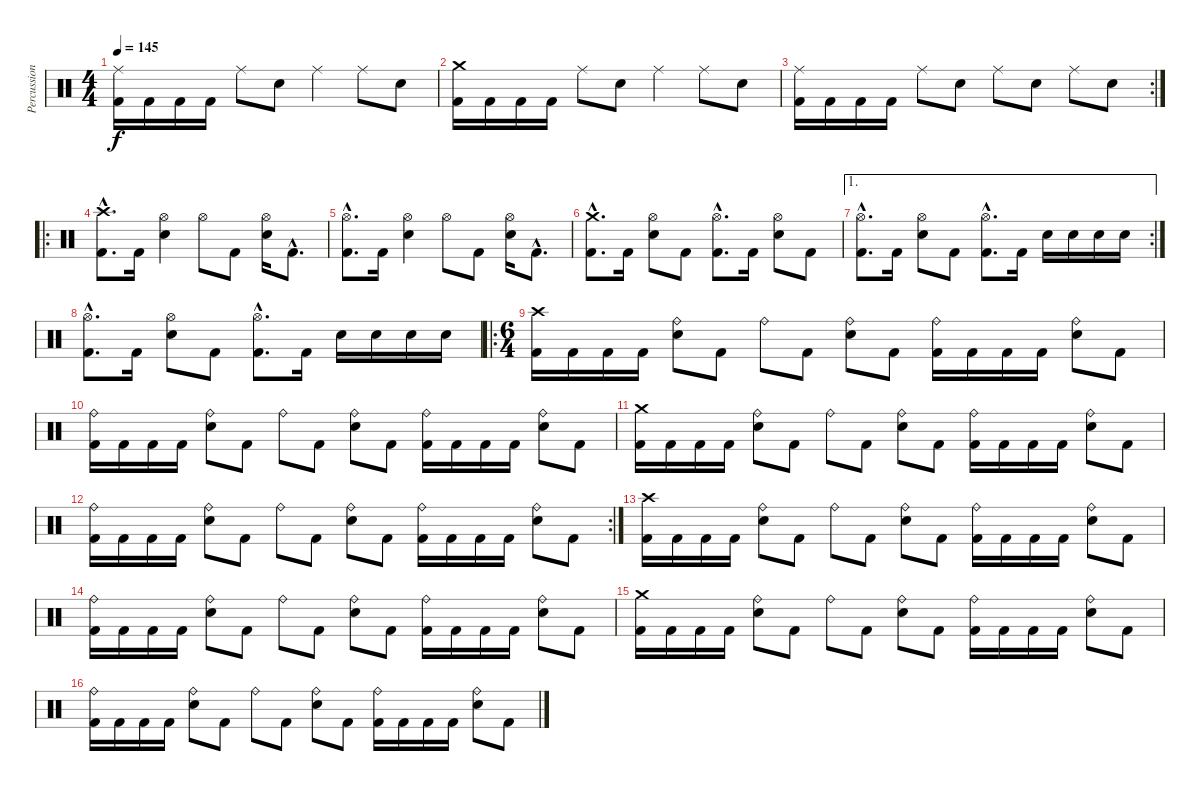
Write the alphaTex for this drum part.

\track ("Percussions" "Percussion") {instrument percussion}
\staff {score}
\articulation defaults
\ts (4 4)
\tempo 145
\clef neutral
\ks c
("Ride (middle)" "Kick (hit) 2").16{dy f} "Kick (hit) 2".16 "Kick (hit) 2".16 "Kick (hit) 2".16 "Ride (middle)".8 "Electric Snare (hit)".8 "Ride (middle)".4 "Ride (middle)".8 "Electric Snare (hit)".8 |
("Crash medium (hit)" "Kick (hit) 2").16 "Kick (hit) 2".16 "Kick (hit) 2".16 "Kick (hit) 2".16 "Ride (middle)".8 "Electric Snare (hit)".8 "Ride (middle)".4 "Ride (middle)".8 "Electric Snare (hit)".8 |
\rc 2
("Ride (middle)" "Kick (hit) 2").16 "Kick (hit) 2".16 "Kick (hit) 2".16 "Kick (hit) 2".16 "Ride (middle)".8 "Electric Snare (hit)".8 "Ride (middle)".8 "Electric Snare (hit)".8 "Ride (middle)".8 "Electric Snare (hit)".8 |
\ro
("Crash high (hit)"{hac} "Kick (hit) 2"{hac}).8{d} "Kick (hit) 2".16 ("Hi-Hat (open)" "Electric Snare (hit)").4 "Hi-Hat (open)".8 "Kick (hit) 2".8 ("Hi-Hat (open)" "Electric Snare (hit)").16 "Kick (hit) 2"{hac}.8{d} |
("Hi-Hat (open)"{hac} "Kick (hit) 2"{hac}).8{d} "Kick (hit) 2".16 ("Hi-Hat (open)" "Electric Snare (hit)").4 "Hi-Hat (open)".8 "Kick (hit) 2".8 ("Hi-Hat (open)" "Electric Snare (hit)").16 "Kick (hit) 2"{hac}.8{d} |
("Crash medium (hit)"{hac} "Kick (hit) 2"{hac}).8{d} "Kick (hit) 2".16 ("Hi-Hat (open)" "Electric Snare (hit)").8 "Kick (hit) 2".8 ("Hi-Hat (open)"{hac} "Kick (hit) 2"{hac}).8{d} "Kick (hit) 2".16 ("Hi-Hat (open)" "Electric Snare (hit)").8 "Kick (hit) 2".8 |
\ae 1
\rc 2
("Hi-Hat (open)"{hac} "Kick (hit) 2"{hac}).8{d} "Kick (hit) 2".16 ("Hi-Hat (open)" "Electric Snare (hit)").8 "Kick (hit) 2".8 ("Hi-Hat (open)"{hac} "Kick (hit) 2"{hac}).8{d} "Kick (hit) 2".16 "Electric Snare (hit)".16 "Electric Snare (hit)".16 "Electric Snare (hit)".16 "Electric Snare (hit)".16 |
("Hi-Hat (open)"{hac} "Kick (hit) 2"{hac}).8{d} "Kick (hit) 2".16 ("Hi-Hat (open)" "Electric Snare (hit)").8 "Kick (hit) 2".8 ("Hi-Hat (open)"{hac} "Kick (hit) 2"{hac}).8{d} "Kick (hit) 2".16 "Electric Snare (hit)".16 "Electric Snare (hit)".16 "Electric Snare (hit)".16 "Electric Snare (hit)".16 |
\ro
\ts (6 4)
("Crash high (hit)" "Kick (hit) 2").16 "Kick (hit) 2".16 "Kick (hit) 2".16 "Kick (hit) 2".16 ("Ride (bell)" "Electric Snare (hit)").8 "Kick (hit) 2".8 "Ride (bell)".8 "Kick (hit) 2".8 ("Ride (bell)" "Electric Snare (hit)").8 "Kick (hit) 2".8 ("Ride (bell)" "Kick (hit) 2").16 "Kick (hit) 2".16 "Kick (hit) 2".16 "Kick (hit) 2".16 ("Ride (bell)" "Electric Snare (hit)").8 "Kick (hit) 2".8 |
("Ride (bell)" "Kick (hit) 2").16 "Kick (hit) 2".16 "Kick (hit) 2".16 "Kick (hit) 2".16 ("Ride (bell)" "Electric Snare (hit)").8 "Kick (hit) 2".8 "Ride (bell)".8 "Kick (hit) 2".8 ("Ride (bell)" "Electric Snare (hit)").8 "Kick (hit) 2".8 ("Ride (bell)" "Kick (hit) 2").16 "Kick (hit) 2".16 "Kick (hit) 2".16 "Kick (hit) 2".16 ("Ride (bell)" "Electric Snare (hit)").8 "Kick (hit) 2".8 |
("Crash medium (hit)" "Kick (hit) 2").16 "Kick (hit) 2".16 "Kick (hit) 2".16 "Kick (hit) 2".16 ("Ride (bell)" "Electric Snare (hit)").8 "Kick (hit) 2".8 "Ride (bell)".8 "Kick (hit) 2".8 ("Ride (bell)" "Electric Snare (hit)").8 "Kick (hit) 2".8 ("Ride (bell)" "Kick (hit) 2").16 "Kick (hit) 2".16 "Kick (hit) 2".16 "Kick (hit) 2".16 ("Ride (bell)" "Electric Snare (hit)").8 "Kick (hit) 2".8 |
\rc 2
("Ride (bell)" "Kick (hit) 2").16 "Kick (hit) 2".16 "Kick (hit) 2".16 "Kick (hit) 2".16 ("Ride (bell)" "Electric Snare (hit)").8 "Kick (hit) 2".8 "Ride (bell)".8 "Kick (hit) 2".8 ("Ride (bell)" "Electric Snare (hit)").8 "Kick (hit) 2".8 ("Ride (bell)" "Kick (hit) 2").16 "Kick (hit) 2".16 "Kick (hit) 2".16 "Kick (hit) 2".16 ("Ride (bell)" "Electric Snare (hit)").8 "Kick (hit) 2".8 |
("Crash high (hit)" "Kick (hit) 2").16 "Kick (hit) 2".16 "Kick (hit) 2".16 "Kick (hit) 2".16 ("Ride (bell)" "Electric Snare (hit)").8 "Kick (hit) 2".8 "Ride (bell)".8 "Kick (hit) 2".8 ("Ride (bell)" "Electric Snare (hit)").8 "Kick (hit) 2".8 ("Ride (bell)" "Kick (hit) 2").16 "Kick (hit) 2".16 "Kick (hit) 2".16 "Kick (hit) 2".16 ("Ride (bell)" "Electric Snare (hit)").8 "Kick (hit) 2".8 |
("Ride (bell)" "Kick (hit) 2").16 "Kick (hit) 2".16 "Kick (hit) 2".16 "Kick (hit) 2".16 ("Ride (bell)" "Electric Snare (hit)").8 "Kick (hit) 2".8 "Ride (bell)".8 "Kick (hit) 2".8 ("Ride (bell)" "Electric Snare (hit)").8 "Kick (hit) 2".8 ("Ride (bell)" "Kick (hit) 2").16 "Kick (hit) 2".16 "Kick (hit) 2".16 "Kick (hit) 2".16 ("Ride (bell)" "Electric Snare (hit)").8 "Kick (hit) 2".8 |
("Crash medium (hit)" "Kick (hit) 2").16 "Kick (hit) 2".16 "Kick (hit) 2".16 "Kick (hit) 2".16 ("Ride (bell)" "Electric Snare (hit)").8 "Kick (hit) 2".8 "Ride (bell)".8 "Kick (hit) 2".8 ("Ride (bell)" "Electric Snare (hit)").8 "Kick (hit) 2".8 ("Ride (bell)" "Kick (hit) 2").16 "Kick (hit) 2".16 "Kick (hit) 2".16 "Kick (hit) 2".16 ("Ride (bell)" "Electric Snare (hit)").8 "Kick (hit) 2".8 |
("Ride (bell)" "Kick (hit) 2").16 "Kick (hit) 2".16 "Kick (hit) 2".16 "Kick (hit) 2".16 ("Ride (bell)" "Electric Snare (hit)").8 "Kick (hit) 2".8 "Ride (bell)".8 "Kick (hit) 2".8 ("Ride (bell)" "Electric Snare (hit)").8 "Kick (hit) 2".8 ("Ride (bell)" "Kick (hit) 2").16 "Kick (hit) 2".16 "Kick (hit) 2".16 "Kick (hit) 2".16 ("Ride (bell)" "Electric Snare (hit)").8 "Kick (hit) 2".8
